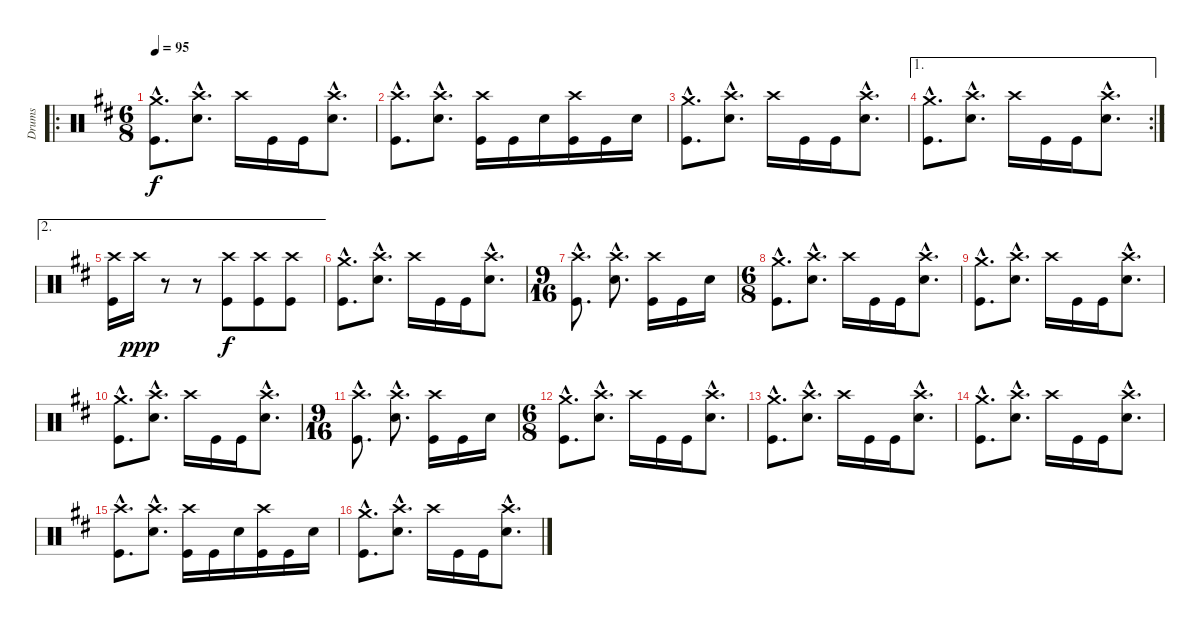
\track ("Drums" "Drums") {instrument percussion}
\staff {score}
\articulation defaults
\ro
\ts (6 8)
\tempo 95
\clef neutral
\ks bminor
("Crash medium (hit)"{hac} "Kick (hit)"{hac}).8{d dy f} ("Crash high (hit)"{hac} "Electric Snare (hit)"{hac}).8{d} "Crash high (hit)".16 "Kick (hit)".16 "Kick (hit)".16 ("Crash high (hit)"{hac} "Electric Snare (hit)"{hac}).8{d} |
("Crash high (hit)"{hac} "Kick (hit)"{hac}).8{d} ("Crash high (hit)"{hac} "Electric Snare (hit)"{hac}).8{d} ("Crash high (hit)" "Kick (hit)").16 "Kick (hit)".16 "Electric Snare (hit)".16 ("Crash high (hit)" "Kick (hit)").16 "Kick (hit)".16 "Electric Snare (hit)".16 |
("Crash medium (hit)"{hac} "Kick (hit)"{hac}).8{d} ("Crash high (hit)"{hac} "Electric Snare (hit)"{hac}).8{d} "Crash high (hit)".16 "Kick (hit)".16 "Kick (hit)".16 ("Crash high (hit)"{hac} "Electric Snare (hit)"{hac}).8{d} |
\ae 1
\rc 2
("Crash medium (hit)"{hac} "Kick (hit)"{hac}).8{d} ("Crash high (hit)"{hac} "Electric Snare (hit)"{hac}).8{d} "Crash high (hit)".16 "Kick (hit)".16 "Kick (hit)".16 ("Crash high (hit)"{hac} "Electric Snare (hit)"{hac}).8{d} |
\ae 2
("Crash high (hit)" "Kick (hit)").16 "Crash high (hit)".16{dy ppp} r.8 r.8 ("Crash high (hit)" "Kick (hit)").8{dy f} ("Crash high (hit)" "Kick (hit)").8 ("Crash high (hit)" "Kick (hit)").8 |
("Crash medium (hit)"{hac} "Kick (hit)"{hac}).8{d} ("Crash high (hit)"{hac} "Electric Snare (hit)"{hac}).8{d} "Crash high (hit)".16 "Kick (hit)".16 "Kick (hit)".16 ("Crash high (hit)"{hac} "Electric Snare (hit)"{hac}).8{d} |
\ts (9 16)
("Crash high (hit)"{hac} "Kick (hit)"{hac}).8{d} ("Crash high (hit)"{hac} "Electric Snare (hit)"{hac}).8{d} ("Crash high (hit)" "Kick (hit)").16 "Kick (hit)".16 "Electric Snare (hit)".16 |
\ts (6 8)
("Crash medium (hit)"{hac} "Kick (hit)"{hac}).8{d} ("Crash high (hit)"{hac} "Electric Snare (hit)"{hac}).8{d} "Crash high (hit)".16 "Kick (hit)".16 "Kick (hit)".16 ("Crash high (hit)"{hac} "Electric Snare (hit)"{hac}).8{d} |
("Crash medium (hit)"{hac} "Kick (hit)"{hac}).8{d} ("Crash high (hit)"{hac} "Electric Snare (hit)"{hac}).8{d} "Crash high (hit)".16 "Kick (hit)".16 "Kick (hit)".16 ("Crash high (hit)"{hac} "Electric Snare (hit)"{hac}).8{d} |
("Crash medium (hit)"{hac} "Kick (hit)"{hac}).8{d} ("Crash high (hit)"{hac} "Electric Snare (hit)"{hac}).8{d} "Crash high (hit)".16 "Kick (hit)".16 "Kick (hit)".16 ("Crash high (hit)"{hac} "Electric Snare (hit)"{hac}).8{d} |
\ts (9 16)
("Crash high (hit)"{hac} "Kick (hit)"{hac}).8{d} ("Crash high (hit)"{hac} "Electric Snare (hit)"{hac}).8{d} ("Crash high (hit)" "Kick (hit)").16 "Kick (hit)".16 "Electric Snare (hit)".16 |
\ts (6 8)
("Crash medium (hit)"{hac} "Kick (hit)"{hac}).8{d} ("Crash high (hit)"{hac} "Electric Snare (hit)"{hac}).8{d} "Crash high (hit)".16 "Kick (hit)".16 "Kick (hit)".16 ("Crash high (hit)"{hac} "Electric Snare (hit)"{hac}).8{d} |
("Crash medium (hit)"{hac} "Kick (hit)"{hac}).8{d} ("Crash high (hit)"{hac} "Electric Snare (hit)"{hac}).8{d} "Crash high (hit)".16 "Kick (hit)".16 "Kick (hit)".16 ("Crash high (hit)"{hac} "Electric Snare (hit)"{hac}).8{d} |
("Crash medium (hit)"{hac} "Kick (hit)"{hac}).8{d} ("Crash high (hit)"{hac} "Electric Snare (hit)"{hac}).8{d} "Crash high (hit)".16 "Kick (hit)".16 "Kick (hit)".16 ("Crash high (hit)"{hac} "Electric Snare (hit)"{hac}).8{d} |
("Crash high (hit)"{hac} "Kick (hit)"{hac}).8{d} ("Crash high (hit)"{hac} "Electric Snare (hit)"{hac}).8{d} ("Crash high (hit)" "Kick (hit)").16 "Kick (hit)".16 "Electric Snare (hit)".16 ("Crash high (hit)" "Kick (hit)").16 "Kick (hit)".16 "Electric Snare (hit)".16 |
("Crash medium (hit)"{hac} "Kick (hit)"{hac}).8{d} ("Crash high (hit)"{hac} "Electric Snare (hit)"{hac}).8{d} "Crash high (hit)".16 "Kick (hit)".16 "Kick (hit)".16 ("Crash high (hit)"{hac} "Electric Snare (hit)"{hac}).8{d}
